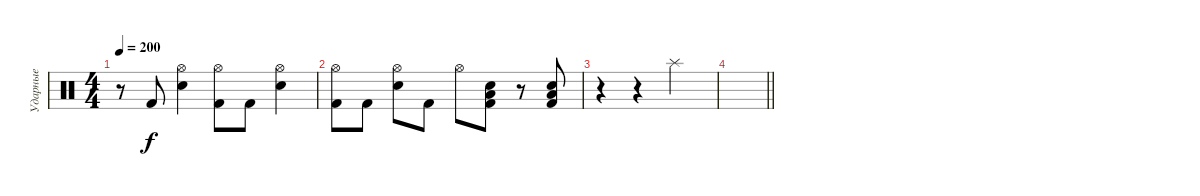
\track ("Ударные" "Ударные") {instrument percussion}
\staff {score}
\articulation defaults
\ts (4 4)
\tempo 200
\clef neutral
\ks c
r.8{dy f} "Kick (hit) 2".8 ("Hi-Hat (open)" "Electric Snare (hit)").4 ("Hi-Hat (open)" "Kick (hit) 2").8 "Kick (hit) 2".8 ("Hi-Hat (open)" "Electric Snare (hit)").4 |
("Hi-Hat (open)" "Kick (hit) 2").8 "Kick (hit) 2".8 ("Hi-Hat (open)" "Electric Snare (hit)").8 "Kick (hit) 2".8 "Hi-Hat (open)".8 ("Electric Snare (hit)" "Low Tom (hit)" "Kick (hit) 2").8 r.8 ("Electric Snare (hit)" "Low Tom (hit)" "Kick (hit) 2").8 |
r.4 r.4 "Splash (hit)".2 |
\barLineRight lightlight
